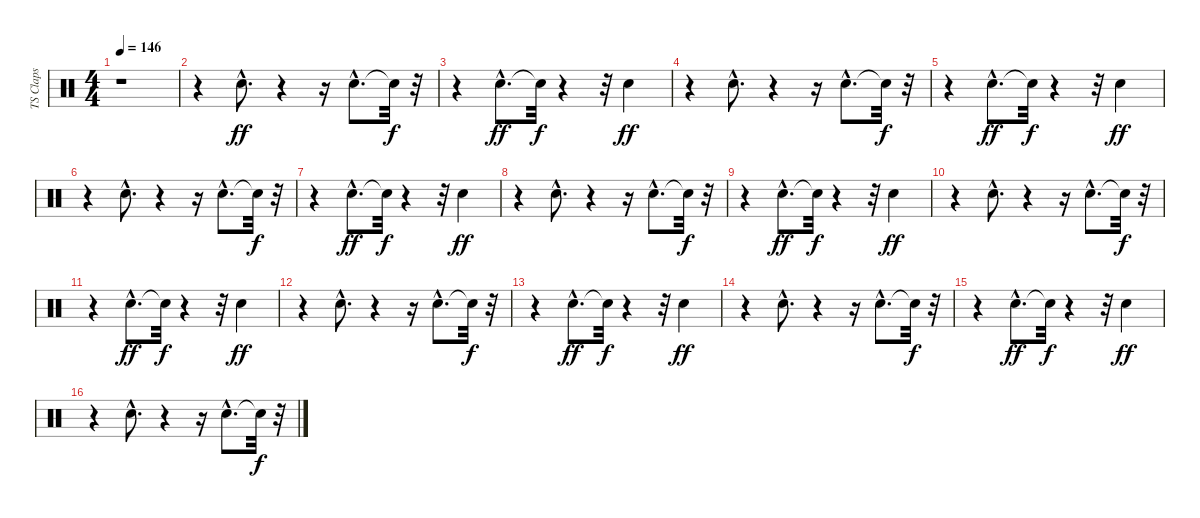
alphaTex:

\track ("TS Claps" "TS Claps") {instrument percussion}
\staff {score}
\articulation defaults
\ts (4 4)
\tempo 146
\clef neutral
\ks c
r.1{dy ff} |
r.4 "Hand Clap (hit)"{hac}.8{d} r.4 r.16 "Hand Clap (hit)"{hac}.8{d} "Snare (hit)"{t}.32{dy f} r.32 |
r.4 "Hand Clap (hit)"{hac}.8{d dy ff} "Snare (hit)"{t}.32{dy f} r.4 r.32 "Hand Clap (hit)".4{dy ff} |
r.4 "Hand Clap (hit)"{hac}.8{d} r.4 r.16 "Hand Clap (hit)"{hac}.8{d} "Snare (hit)"{t}.32{dy f} r.32 |
r.4 "Hand Clap (hit)"{hac}.8{d dy ff} "Snare (hit)"{t}.32{dy f} r.4 r.32 "Hand Clap (hit)".4{dy ff} |
r.4 "Hand Clap (hit)"{hac}.8{d} r.4 r.16 "Hand Clap (hit)"{hac}.8{d} "Snare (hit)"{t}.32{dy f} r.32 |
r.4 "Hand Clap (hit)"{hac}.8{d dy ff} "Snare (hit)"{t}.32{dy f} r.4 r.32 "Hand Clap (hit)".4{dy ff} |
r.4 "Hand Clap (hit)"{hac}.8{d} r.4 r.16 "Hand Clap (hit)"{hac}.8{d} "Snare (hit)"{t}.32{dy f} r.32 |
r.4 "Hand Clap (hit)"{hac}.8{d dy ff} "Snare (hit)"{t}.32{dy f} r.4 r.32 "Hand Clap (hit)".4{dy ff} |
r.4 "Hand Clap (hit)"{hac}.8{d} r.4 r.16 "Hand Clap (hit)"{hac}.8{d} "Snare (hit)"{t}.32{dy f} r.32 |
r.4 "Hand Clap (hit)"{hac}.8{d dy ff} "Snare (hit)"{t}.32{dy f} r.4 r.32 "Hand Clap (hit)".4{dy ff} |
r.4 "Hand Clap (hit)"{hac}.8{d} r.4 r.16 "Hand Clap (hit)"{hac}.8{d} "Snare (hit)"{t}.32{dy f} r.32 |
r.4 "Hand Clap (hit)"{hac}.8{d dy ff} "Snare (hit)"{t}.32{dy f} r.4 r.32 "Hand Clap (hit)".4{dy ff} |
r.4 "Hand Clap (hit)"{hac}.8{d} r.4 r.16 "Hand Clap (hit)"{hac}.8{d} "Snare (hit)"{t}.32{dy f} r.32 |
r.4 "Hand Clap (hit)"{hac}.8{d dy ff} "Snare (hit)"{t}.32{dy f} r.4 r.32 "Hand Clap (hit)".4{dy ff} |
r.4 "Hand Clap (hit)"{hac}.8{d} r.4 r.16 "Hand Clap (hit)"{hac}.8{d} "Snare (hit)"{t}.32{dy f} r.32
